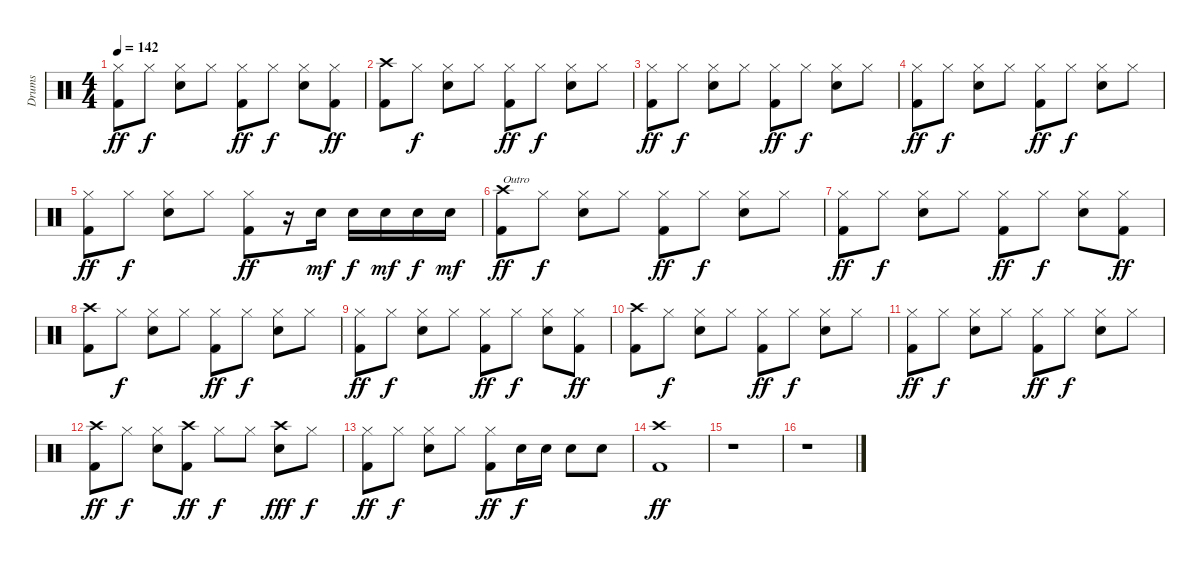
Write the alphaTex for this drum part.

\track ("Drums" "Drums") {instrument percussion}
\staff {score}
\articulation defaults
\ts (4 4)
\tempo 142
\clef neutral
\ks c
("Hi-Hat (closed)" "Kick (hit) 2").8{dy ff} "Hi-Hat (closed)".8{dy f} ("Hi-Hat (closed)" "Snare (hit) 2").8 "Hi-Hat (closed)".8 ("Hi-Hat (closed)" "Kick (hit) 2").8{dy ff} "Hi-Hat (closed)".8{dy f} ("Hi-Hat (closed)" "Snare (hit) 2").8 ("Hi-Hat (closed)" "Kick (hit) 2").8{dy ff} |
("Crash high (hit)" "Kick (hit) 2").8 "Hi-Hat (closed)".8{dy f} ("Hi-Hat (closed)" "Snare (hit) 2").8 "Hi-Hat (closed)".8 ("Hi-Hat (closed)" "Kick (hit) 2").8{dy ff} "Hi-Hat (closed)".8{dy f} ("Hi-Hat (closed)" "Snare (hit) 2").8 "Hi-Hat (closed)".8 |
("Hi-Hat (closed)" "Kick (hit) 2").8{dy ff} "Hi-Hat (closed)".8{dy f} ("Hi-Hat (closed)" "Snare (hit) 2").8 "Hi-Hat (closed)".8 ("Hi-Hat (closed)" "Kick (hit) 2").8{dy ff} "Hi-Hat (closed)".8{dy f} ("Hi-Hat (closed)" "Snare (hit) 2").8 "Hi-Hat (closed)".8 |
("Hi-Hat (closed)" "Kick (hit) 2").8{dy ff} "Hi-Hat (closed)".8{dy f} ("Hi-Hat (closed)" "Snare (hit) 2").8 "Hi-Hat (closed)".8 ("Hi-Hat (closed)" "Kick (hit) 2").8{dy ff} "Hi-Hat (closed)".8{dy f} ("Hi-Hat (closed)" "Snare (hit) 2").8 "Hi-Hat (closed)".8 |
("Hi-Hat (closed)" "Kick (hit) 2").8{dy ff} "Hi-Hat (closed)".8{dy f} ("Hi-Hat (closed)" "Snare (hit) 2").8 "Hi-Hat (closed)".8 ("Hi-Hat (closed)" "Kick (hit) 2").8{dy ff} r.16 "Snare (hit) 2".16{dy mf} "Snare (hit) 2".16{dy f} "Snare (hit) 2".16{dy mf} "Snare (hit) 2".16{dy f} "Snare (hit) 2".16{dy mf} |
("Crash high (hit)" "Kick (hit) 2").8{txt "Outro" dy ff} "Hi-Hat (closed)".8{dy f} ("Hi-Hat (closed)" "Snare (hit) 2").8 "Hi-Hat (closed)".8 ("Hi-Hat (closed)" "Kick (hit) 2").8{dy ff} "Hi-Hat (closed)".8{dy f} ("Hi-Hat (closed)" "Snare (hit) 2").8 "Hi-Hat (closed)".8 |
("Hi-Hat (closed)" "Kick (hit) 2").8{dy ff} "Hi-Hat (closed)".8{dy f} ("Hi-Hat (closed)" "Snare (hit) 2").8 "Hi-Hat (closed)".8 ("Hi-Hat (closed)" "Kick (hit) 2").8{dy ff} "Hi-Hat (closed)".8{dy f} ("Hi-Hat (closed)" "Snare (hit) 2").8 ("Hi-Hat (closed)" "Kick (hit) 2").8{dy ff} |
("Crash high (hit)" "Kick (hit) 2").8 "Hi-Hat (closed)".8{dy f} ("Hi-Hat (closed)" "Snare (hit) 2").8 "Hi-Hat (closed)".8 ("Hi-Hat (closed)" "Kick (hit) 2").8{dy ff} "Hi-Hat (closed)".8{dy f} ("Hi-Hat (closed)" "Snare (hit) 2").8 "Hi-Hat (closed)".8 |
("Hi-Hat (closed)" "Kick (hit) 2").8{dy ff} "Hi-Hat (closed)".8{dy f} ("Hi-Hat (closed)" "Snare (hit) 2").8 "Hi-Hat (closed)".8 ("Hi-Hat (closed)" "Kick (hit) 2").8{dy ff} "Hi-Hat (closed)".8{dy f} ("Hi-Hat (closed)" "Snare (hit) 2").8 ("Hi-Hat (closed)" "Kick (hit) 2").8{dy ff} |
("Crash high (hit)" "Kick (hit) 2").8 "Hi-Hat (closed)".8{dy f} ("Hi-Hat (closed)" "Snare (hit) 2").8 "Hi-Hat (closed)".8 ("Hi-Hat (closed)" "Kick (hit) 2").8{dy ff} "Hi-Hat (closed)".8{dy f} ("Hi-Hat (closed)" "Snare (hit) 2").8 "Hi-Hat (closed)".8 |
("Hi-Hat (closed)" "Kick (hit) 2").8{dy ff} "Hi-Hat (closed)".8{dy f} ("Hi-Hat (closed)" "Snare (hit) 2").8 "Hi-Hat (closed)".8 ("Hi-Hat (closed)" "Kick (hit) 2").8{dy ff} "Hi-Hat (closed)".8{dy f} ("Hi-Hat (closed)" "Snare (hit) 2").8 "Hi-Hat (closed)".8 |
("Crash high (hit)" "Kick (hit) 2").8{dy ff} "Hi-Hat (closed)".8{dy f} ("Hi-Hat (closed)" "Snare (hit) 2").8 ("Crash high (hit)" "Kick (hit) 2").8{dy ff} "Hi-Hat (closed)".8{dy f} "Hi-Hat (closed)".8 ("Crash high (hit)" "Snare (hit) 2").8{dy fff} "Hi-Hat (closed)".8{dy f} |
("Hi-Hat (closed)" "Kick (hit) 2").8{dy ff} "Hi-Hat (closed)".8{dy f} ("Hi-Hat (closed)" "Snare (hit) 2").8 "Hi-Hat (closed)".8 ("Hi-Hat (closed)" "Kick (hit) 2").8{dy ff} "Snare (hit) 2".16{dy f} "Snare (hit) 2".16 "Snare (hit) 2".8 "Snare (hit) 2".8 |
("Crash high (hit)" "Kick (hit) 2").1{dy ff} |
r.1 |
r.1
